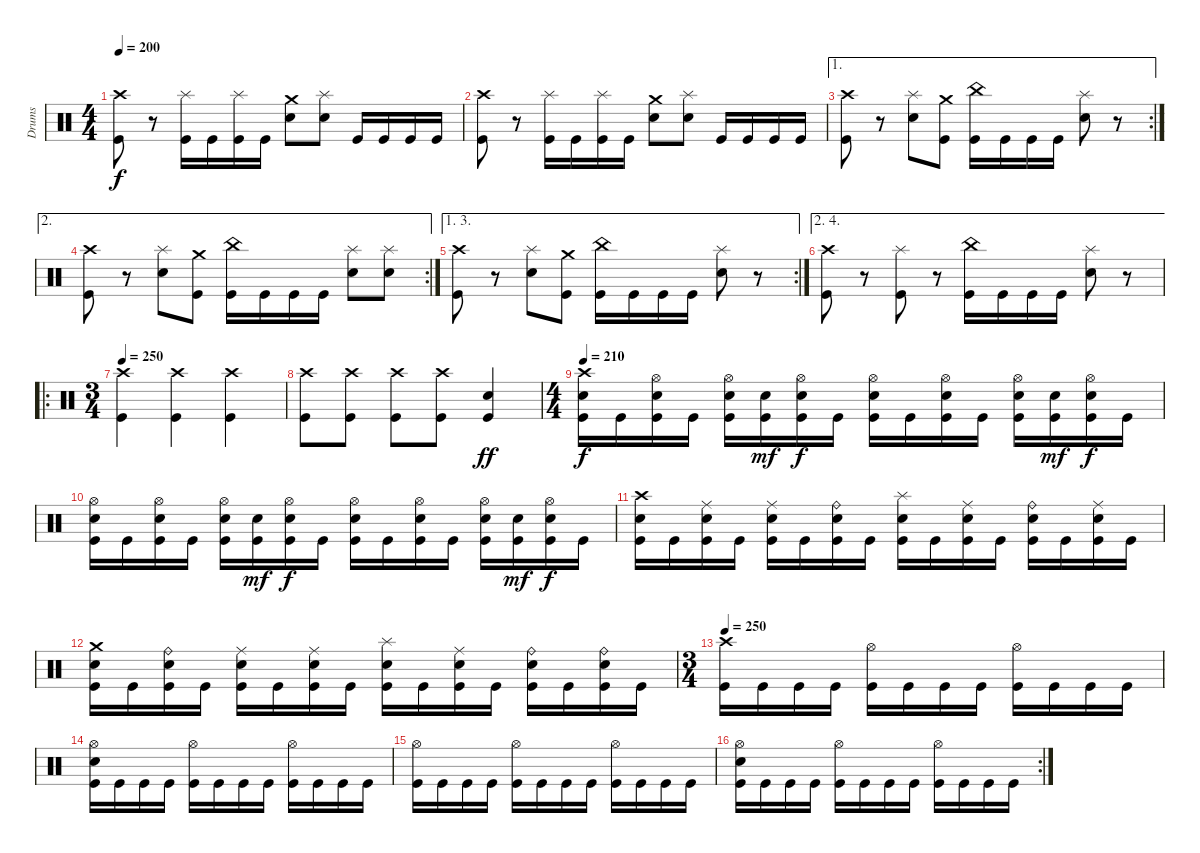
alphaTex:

\track ("Drums" "Drums") {instrument percussion}
\staff {score}
\articulation defaults
\ts (4 4)
\tempo 200
\clef neutral
\ks c
("Crash high (hit)" "Kick (hit)").8{dy f} r.8 ("Splash (hit)" "Kick (hit)").16 "Kick (hit)".16 ("Splash (hit)" "Kick (hit)").16 "Kick (hit)".16 ("Crash medium (hit)" "Electric Snare (hit)").8 ("Splash (hit)" "Electric Snare (hit)").8 "Kick (hit)".16 "Kick (hit)".16 "Kick (hit)".16 "Kick (hit)".16 |
("Crash high (hit)" "Kick (hit)").8 r.8 ("Splash (hit)" "Kick (hit)").16 "Kick (hit)".16 ("Splash (hit)" "Kick (hit)").16 "Kick (hit)".16 ("Crash medium (hit)" "Electric Snare (hit)").8 ("Splash (hit)" "Electric Snare (hit)").8 "Kick (hit)".16 "Kick (hit)".16 "Kick (hit)".16 "Kick (hit)".16 |
\ae 1
\rc 2
("Crash high (hit)" "Kick (hit)").8 r.8 ("Splash (hit)" "Electric Snare (hit)").8 ("Crash medium (hit)" "Kick (hit)").8 ("China (hit)" "Kick (hit)").16 "Kick (hit)".16 "Kick (hit)".16 "Kick (hit)".16 ("Splash (hit)" "Electric Snare (hit)").8 r.8 |
\ae 2
\rc 2
("Crash high (hit)" "Kick (hit)").8 r.8 ("Splash (hit)" "Electric Snare (hit)").8 ("Crash medium (hit)" "Kick (hit)").8 ("China (hit)" "Kick (hit)").16 "Kick (hit)".16 "Kick (hit)".16 "Kick (hit)".16 ("Splash (hit)" "Electric Snare (hit)").8 ("Splash (hit)" "Electric Snare (hit)").8 |
\ae (1 3)
\rc 2
("Crash high (hit)" "Kick (hit)").8 r.8 ("Splash (hit)" "Electric Snare (hit)").8 ("Crash medium (hit)" "Kick (hit)").8 ("China (hit)" "Kick (hit)").16 "Kick (hit)".16 "Kick (hit)".16 "Kick (hit)".16 ("Splash (hit)" "Electric Snare (hit)").8 r.8 |
\ae (2 4)
("Crash high (hit)" "Kick (hit)").8 r.8 ("Splash (hit)" "Kick (hit)").8 r.8 ("China (hit)" "Kick (hit)").16 "Kick (hit)".16 "Kick (hit)".16 "Kick (hit)".16 ("Splash (hit)" "Electric Snare (hit)").8 r.8 |
\ro
\ts (3 4)
\tempo 250
("Crash high (hit)" "Kick (hit)").4 ("Crash high (hit)" "Kick (hit)").4 ("Crash high (hit)" "Kick (hit)").4 |
("Crash high (hit)" "Kick (hit)").8 ("Crash high (hit)" "Kick (hit)").8 ("Crash high (hit)" "Kick (hit)").8 ("Crash high (hit)" "Kick (hit)").8 ("Electric Snare (hit)" "Kick (hit)").4{dy ff} |
\ts (4 4)
\tempo 210
("Crash high (hit)" "Electric Snare (hit)" "Kick (hit)").16{dy f} "Kick (hit)".16 ("Hi-Hat (open)" "Electric Snare (hit)" "Kick (hit)").16 "Kick (hit)".16 ("Hi-Hat (open)" "Electric Snare (hit)" "Kick (hit)").16 ("Electric Snare (hit)" "Kick (hit)").16{dy mf} ("Hi-Hat (open)" "Electric Snare (hit)" "Kick (hit)").16{dy f} "Kick (hit)".16 ("Hi-Hat (open)" "Electric Snare (hit)" "Kick (hit)").16 "Kick (hit)".16 ("Hi-Hat (open)" "Electric Snare (hit)" "Kick (hit)").16 "Kick (hit)".16 ("Hi-Hat (open)" "Electric Snare (hit)" "Kick (hit)").16 ("Electric Snare (hit)" "Kick (hit)").16{dy mf} ("Hi-Hat (open)" "Electric Snare (hit)" "Kick (hit)").16{dy f} "Kick (hit)".16 |
("Hi-Hat (open)" "Electric Snare (hit)" "Kick (hit)").16 "Kick (hit)".16 ("Hi-Hat (open)" "Electric Snare (hit)" "Kick (hit)").16 "Kick (hit)".16 ("Hi-Hat (open)" "Electric Snare (hit)" "Kick (hit)").16 ("Electric Snare (hit)" "Kick (hit)").16{dy mf} ("Hi-Hat (open)" "Electric Snare (hit)" "Kick (hit)").16{dy f} "Kick (hit)".16 ("Hi-Hat (open)" "Electric Snare (hit)" "Kick (hit)").16 "Kick (hit)".16 ("Hi-Hat (open)" "Electric Snare (hit)" "Kick (hit)").16 "Kick (hit)".16 ("Hi-Hat (open)" "Electric Snare (hit)" "Kick (hit)").16 ("Electric Snare (hit)" "Kick (hit)").16{dy mf} ("Hi-Hat (open)" "Electric Snare (hit)" "Kick (hit)").16{dy f} "Kick (hit)".16 |
("Crash high (hit)" "Electric Snare (hit)" "Kick (hit)").16 "Kick (hit)".16 ("Ride (middle)" "Electric Snare (hit)" "Kick (hit)").16 "Kick (hit)".16 ("Ride (middle)" "Electric Snare (hit)" "Kick (hit)").16 "Kick (hit)".16 ("Ride (bell)" "Electric Snare (hit)" "Kick (hit)").16 "Kick (hit)".16 ("Splash (hit)" "Electric Snare (hit)" "Kick (hit)").16 "Kick (hit)".16 ("Ride (middle)" "Electric Snare (hit)" "Kick (hit)").16 "Kick (hit)".16 ("Ride (bell)" "Electric Snare (hit)" "Kick (hit)").16 "Kick (hit)".16 ("Ride (middle)" "Electric Snare (hit)" "Kick (hit)").16 "Kick (hit)".16 |
("Crash medium (hit)" "Electric Snare (hit)" "Kick (hit)").16 "Kick (hit)".16 ("Ride (bell)" "Electric Snare (hit)" "Kick (hit)").16 "Kick (hit)".16 ("Ride (middle)" "Electric Snare (hit)" "Kick (hit)").16 "Kick (hit)".16 ("Ride (middle)" "Electric Snare (hit)" "Kick (hit)").16 "Kick (hit)".16 ("Splash (hit)" "Electric Snare (hit)" "Kick (hit)").16 "Kick (hit)".16 ("Ride (middle)" "Electric Snare (hit)" "Kick (hit)").16 "Kick (hit)".16 ("Ride (bell)" "Electric Snare (hit)" "Kick (hit)").16 "Kick (hit)".16 ("Ride (bell)" "Electric Snare (hit)" "Kick (hit)").16 "Kick (hit)".16 |
\ts (3 4)
\tempo 250
("Crash high (hit)" "Kick (hit)").16 "Kick (hit)".16 "Kick (hit)".16 "Kick (hit)".16 ("Hi-Hat (open)" "Kick (hit)").16 "Kick (hit)".16 "Kick (hit)".16 "Kick (hit)".16 ("Hi-Hat (open)" "Kick (hit)").16 "Kick (hit)".16 "Kick (hit)".16 "Kick (hit)".16 |
("Hi-Hat (open)" "Electric Snare (hit)" "Kick (hit)").16 "Kick (hit)".16 "Kick (hit)".16 "Kick (hit)".16 ("Hi-Hat (open)" "Kick (hit)").16 "Kick (hit)".16 "Kick (hit)".16 "Kick (hit)".16 ("Hi-Hat (open)" "Kick (hit)").16 "Kick (hit)".16 "Kick (hit)".16 "Kick (hit)".16 |
("Hi-Hat (open)" "Kick (hit)").16 "Kick (hit)".16 "Kick (hit)".16 "Kick (hit)".16 ("Hi-Hat (open)" "Kick (hit)").16 "Kick (hit)".16 "Kick (hit)".16 "Kick (hit)".16 ("Hi-Hat (open)" "Kick (hit)").16 "Kick (hit)".16 "Kick (hit)".16 "Kick (hit)".16 |
\rc 2
("Hi-Hat (open)" "Electric Snare (hit)" "Kick (hit)").16 "Kick (hit)".16 "Kick (hit)".16 "Kick (hit)".16 ("Hi-Hat (open)" "Kick (hit)").16 "Kick (hit)".16 "Kick (hit)".16 "Kick (hit)".16 ("Hi-Hat (open)" "Kick (hit)").16 "Kick (hit)".16 "Kick (hit)".16 "Kick (hit)".16
